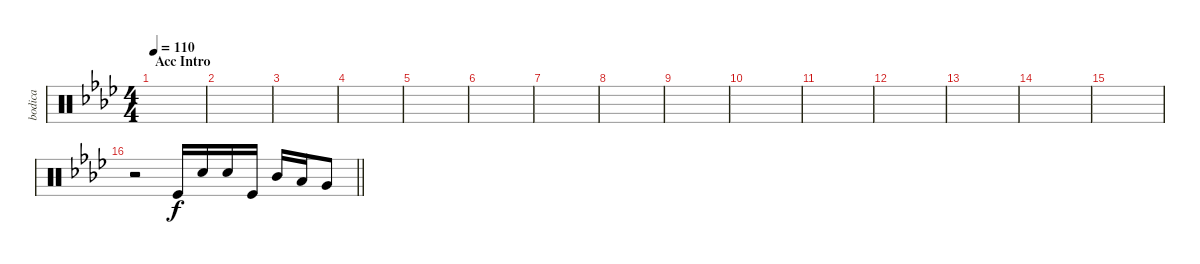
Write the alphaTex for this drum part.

\track ("bodica" "bodica") {instrument percussion}
\staff {score}
\articulation defaults
\ts (4 4)
\section ("" "Acc Intro")
\tempo 110
\clef neutral
\ks fminor
|
|
|
|
|
|
|
|
|
|
|
|
|
|
|
\barLineRight lightlight
r.2 "Kick (hit)".16 "Snare (hit) 2".16 "Snare (hit) 2".16 "Kick (hit)".16 "Mid Tom (hit)".16 "Low Tom (hit)".16 "Very Low Tom (hit)".8
